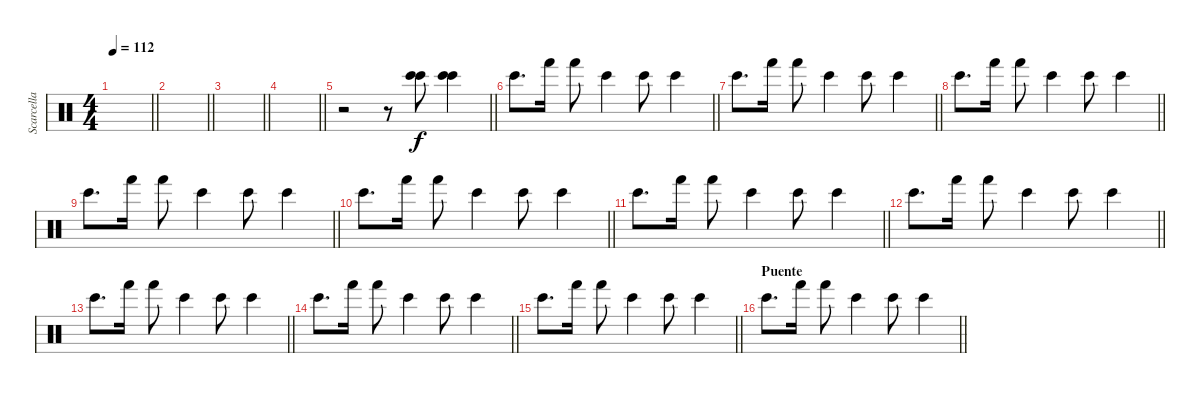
\track ("Scarcella" "Scarcella") {instrument percussion}
\staff {score}
\articulation defaults
\ts (4 4)
\tempo 112
\clef neutral
\barLineRight lightlight
\ks c
|
\barLineRight lightlight
|
\barLineRight lightlight
|
\barLineRight lightlight
|
\barLineRight lightlight
r.2 r.8 ("Bongo High (hit)" "Bongo High (hit)").8 ("Bongo High (hit)" "Bongo High (hit)").4 |
\barLineRight lightlight "Bongo High (hit)".8{d} "Hand (hit)".16 "Hand (hit)".8 "Bongo High (hit)".4 "Bongo High (hit)".8 "Bongo High (hit)".4
|
\barLineRight lightlight "Bongo High (hit)".8{d} "Hand (hit)".16 "Hand (hit)".8 "Bongo High (hit)".4 "Bongo High (hit)".8 "Bongo High (hit)".4
|
\barLineRight lightlight "Bongo High (hit)".8{d} "Hand (hit)".16 "Hand (hit)".8 "Bongo High (hit)".4 "Bongo High (hit)".8 "Bongo High (hit)".4
|
\barLineRight lightlight "Bongo High (hit)".8{d} "Hand (hit)".16 "Hand (hit)".8 "Bongo High (hit)".4 "Bongo High (hit)".8 "Bongo High (hit)".4
|
\barLineRight lightlight "Bongo High (hit)".8{d} "Hand (hit)".16 "Hand (hit)".8 "Bongo High (hit)".4 "Bongo High (hit)".8 "Bongo High (hit)".4
|
\barLineRight lightlight "Bongo High (hit)".8{d} "Hand (hit)".16 "Hand (hit)".8 "Bongo High (hit)".4 "Bongo High (hit)".8 "Bongo High (hit)".4
|
\barLineRight lightlight "Bongo High (hit)".8{d} "Hand (hit)".16 "Hand (hit)".8 "Bongo High (hit)".4 "Bongo High (hit)".8 "Bongo High (hit)".4
|
\barLineRight lightlight "Bongo High (hit)".8{d} "Hand (hit)".16 "Hand (hit)".8 "Bongo High (hit)".4 "Bongo High (hit)".8 "Bongo High (hit)".4
|
\barLineRight lightlight "Bongo High (hit)".8{d} "Hand (hit)".16 "Hand (hit)".8 "Bongo High (hit)".4 "Bongo High (hit)".8 "Bongo High (hit)".4
|
\barLineRight lightlight "Bongo High (hit)".8{d} "Hand (hit)".16 "Hand (hit)".8 "Bongo High (hit)".4 "Bongo High (hit)".8 "Bongo High (hit)".4
|
\section ("" "Puente")
\barLineRight lightlight "Bongo High (hit)".8{d} "Hand (hit)".16 "Hand (hit)".8 "Bongo High (hit)".4 "Bongo High (hit)".8 "Bongo High (hit)".4
